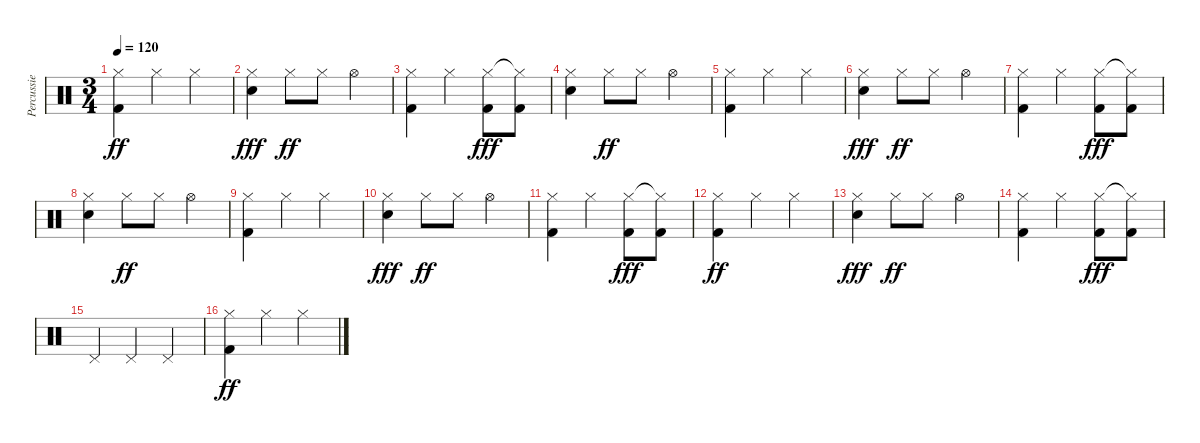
\track ("Percussie" "Percussie") {instrument percussion}
\staff {score}
\articulation defaults
\ts (3 4)
\tempo 120
\clef neutral
\ks c
("Hi-Hat (closed)" "Kick (hit) 2").4{dy ff} "Hi-Hat (closed)".4 "Hi-Hat (closed)".4 |
("Hi-Hat (closed)" "Electric Snare (hit)").4{dy fff} "Hi-Hat (closed)".8{dy ff} "Hi-Hat (closed)".8 "Hi-Hat (open)".4 |
("Hi-Hat (closed)" "Kick (hit) 2").4 "Hi-Hat (closed)".4 ("Hi-Hat (closed)" "Kick (hit) 2").8{dy fff} ("Hi-Hat (closed)"{t} "Kick (hit) 2").8 |
("Hi-Hat (closed)" "Electric Snare (hit)").4 "Hi-Hat (closed)".8{dy ff} "Hi-Hat (closed)".8 "Hi-Hat (open)".4 |
("Hi-Hat (closed)" "Kick (hit) 2").4 "Hi-Hat (closed)".4 "Hi-Hat (closed)".4 |
("Hi-Hat (closed)" "Electric Snare (hit)").4{dy fff} "Hi-Hat (closed)".8{dy ff} "Hi-Hat (closed)".8 "Hi-Hat (open)".4 |
("Hi-Hat (closed)" "Kick (hit) 2").4 "Hi-Hat (closed)".4 ("Hi-Hat (closed)" "Kick (hit) 2").8{dy fff} ("Hi-Hat (closed)"{t} "Kick (hit) 2").8 |
("Hi-Hat (closed)" "Electric Snare (hit)").4 "Hi-Hat (closed)".8{dy ff} "Hi-Hat (closed)".8 "Hi-Hat (open)".4 |
("Hi-Hat (closed)" "Kick (hit) 2").4 "Hi-Hat (closed)".4 "Hi-Hat (closed)".4 |
("Hi-Hat (closed)" "Electric Snare (hit)").4{dy fff} "Hi-Hat (closed)".8{dy ff} "Hi-Hat (closed)".8 "Hi-Hat (open)".4 |
("Hi-Hat (closed)" "Kick (hit) 2").4 "Hi-Hat (closed)".4 ("Hi-Hat (closed)" "Kick (hit) 2").8{dy fff} ("Hi-Hat (closed)"{t} "Kick (hit) 2").8 |
("Hi-Hat (closed)" "Kick (hit) 2").4{dy ff} "Hi-Hat (closed)".4 "Hi-Hat (closed)".4 |
("Hi-Hat (closed)" "Electric Snare (hit)").4{dy fff} "Hi-Hat (closed)".8{dy ff} "Hi-Hat (closed)".8 "Hi-Hat (open)".4 |
("Hi-Hat (closed)" "Kick (hit) 2").4 "Hi-Hat (closed)".4 ("Hi-Hat (closed)" "Kick (hit) 2").8{dy fff} ("Hi-Hat (closed)"{t} "Kick (hit) 2").8 |
"Pedal Hi-Hat (hit)".4 "Pedal Hi-Hat (hit)".4 "Pedal Hi-Hat (hit)".4 |
("Hi-Hat (closed)" "Kick (hit) 2").4{dy ff} "Hi-Hat (closed)".4 "Hi-Hat (closed)".4
